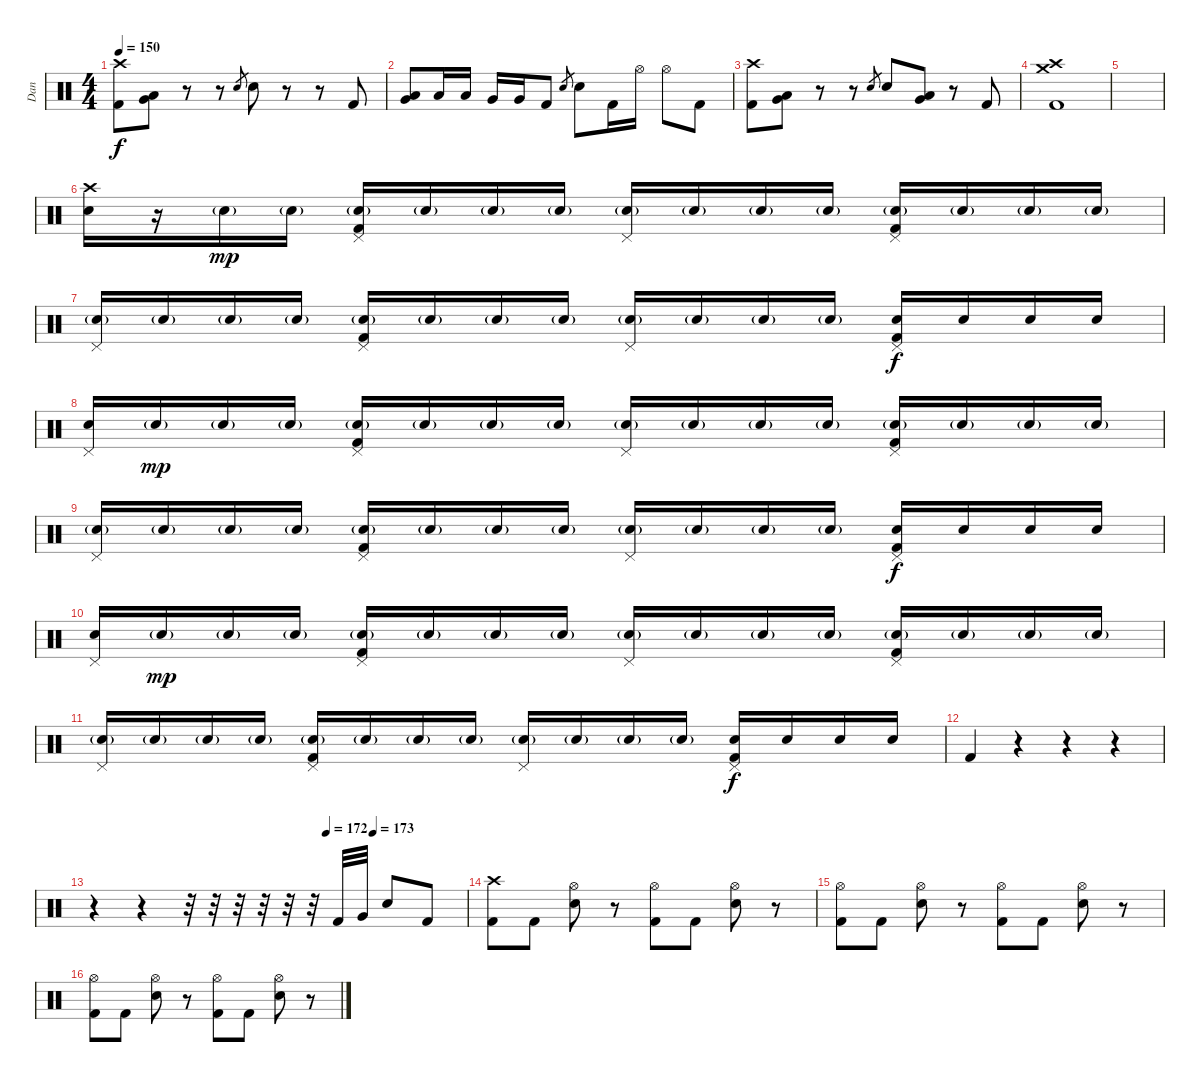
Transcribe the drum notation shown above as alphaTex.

\track ("Dan" "Dan") {instrument percussion}
\staff {score}
\articulation defaults
\ts (4 4)
\tempo 150
\clef neutral
\ks c
("Crash high (hit)" "Kick (hit) 2").8{dy f} ("Low Tom (hit)" "Very Low Tom (hit)").8 r.8 r.8 "Electric Snare (hit)".8{gr} "Electric Snare (hit)".8 r.8 r.8 "Kick (hit) 2".8 |
("Low Tom (hit)" "Very Low Tom (hit)").8 "Low Tom (hit)".16 "Low Tom (hit)".16 "Very Low Tom (hit)".16 "Very Low Tom (hit)".16 "Kick (hit) 2".8 "Electric Snare (hit)".8{gr} "Electric Snare (hit)".8 "Kick (hit) 2".16 "Hi-Hat (open)".16 "Hi-Hat (open)".8 "Kick (hit) 2".8 |
("Crash high (hit)" "Kick (hit) 2").8 ("Very Low Tom (hit)" "Low Tom (hit)").8 r.8 r.8 "Electric Snare (hit)".8{gr} "Electric Snare (hit)".8 ("Very Low Tom (hit)" "Low Tom (hit)").8 r.8 "Kick (hit) 2".8 |
("Crash high (hit)" "Crash medium (hit)" "Kick (hit) 2").1 |
|
("Crash high (hit)" "Electric Snare (hit)").16 r.16 "Electric Snare (hit)"{g}.16{dy mp} "Electric Snare (hit)"{g}.16 ("Pedal Hi-Hat (hit)" "Electric Snare (hit)"{g} "Kick (hit) 2").16 "Electric Snare (hit)"{g}.16 "Electric Snare (hit)"{g}.16 "Electric Snare (hit)"{g}.16 ("Pedal Hi-Hat (hit)" "Electric Snare (hit)"{g}).16 "Electric Snare (hit)"{g}.16 "Electric Snare (hit)"{g}.16 "Electric Snare (hit)"{g}.16 ("Pedal Hi-Hat (hit)" "Electric Snare (hit)"{g} "Kick (hit) 2").16 "Electric Snare (hit)"{g}.16 "Electric Snare (hit)"{g}.16 "Electric Snare (hit)"{g}.16 |
("Pedal Hi-Hat (hit)" "Electric Snare (hit)"{g}).16{volume 16} "Electric Snare (hit)"{g}.16 "Electric Snare (hit)"{g}.16 "Electric Snare (hit)"{g}.16 ("Pedal Hi-Hat (hit)" "Electric Snare (hit)"{g} "Kick (hit) 2").16 "Electric Snare (hit)"{g}.16 "Electric Snare (hit)"{g}.16 "Electric Snare (hit)"{g}.16 ("Pedal Hi-Hat (hit)" "Electric Snare (hit)"{g}).16 "Electric Snare (hit)"{g}.16 "Electric Snare (hit)"{g}.16 "Electric Snare (hit)"{g}.16 ("Pedal Hi-Hat (hit)" "Electric Snare (hit)" "Kick (hit) 2").16{dy f} "Electric Snare (hit)".16 "Electric Snare (hit)".16 "Electric Snare (hit)".16 |
("Pedal Hi-Hat (hit)" "Electric Snare (hit)").16{volume 12} "Electric Snare (hit)"{g}.16{dy mp} "Electric Snare (hit)"{g}.16 "Electric Snare (hit)"{g}.16 ("Pedal Hi-Hat (hit)" "Electric Snare (hit)"{g} "Kick (hit) 2").16 "Electric Snare (hit)"{g}.16 "Electric Snare (hit)"{g}.16 "Electric Snare (hit)"{g}.16 ("Pedal Hi-Hat (hit)" "Electric Snare (hit)"{g}).16 "Electric Snare (hit)"{g}.16 "Electric Snare (hit)"{g}.16 "Electric Snare (hit)"{g}.16 ("Pedal Hi-Hat (hit)" "Electric Snare (hit)"{g} "Kick (hit) 2").16 "Electric Snare (hit)"{g}.16 "Electric Snare (hit)"{g}.16 "Electric Snare (hit)"{g}.16 |
("Pedal Hi-Hat (hit)" "Electric Snare (hit)"{g}).16{volume 16} "Electric Snare (hit)"{g}.16 "Electric Snare (hit)"{g}.16 "Electric Snare (hit)"{g}.16 ("Pedal Hi-Hat (hit)" "Electric Snare (hit)"{g} "Kick (hit) 2").16 "Electric Snare (hit)"{g}.16 "Electric Snare (hit)"{g}.16 "Electric Snare (hit)"{g}.16 ("Pedal Hi-Hat (hit)" "Electric Snare (hit)"{g}).16 "Electric Snare (hit)"{g}.16 "Electric Snare (hit)"{g}.16 "Electric Snare (hit)"{g}.16 ("Pedal Hi-Hat (hit)" "Electric Snare (hit)" "Kick (hit) 2").16{dy f} "Electric Snare (hit)".16 "Electric Snare (hit)".16 "Electric Snare (hit)".16 |
("Pedal Hi-Hat (hit)" "Electric Snare (hit)").16{volume 12} "Electric Snare (hit)"{g}.16{dy mp} "Electric Snare (hit)"{g}.16 "Electric Snare (hit)"{g}.16 ("Pedal Hi-Hat (hit)" "Electric Snare (hit)"{g} "Kick (hit) 2").16 "Electric Snare (hit)"{g}.16 "Electric Snare (hit)"{g}.16 "Electric Snare (hit)"{g}.16 ("Pedal Hi-Hat (hit)" "Electric Snare (hit)"{g}).16 "Electric Snare (hit)"{g}.16 "Electric Snare (hit)"{g}.16 "Electric Snare (hit)"{g}.16 ("Pedal Hi-Hat (hit)" "Electric Snare (hit)"{g} "Kick (hit) 2").16 "Electric Snare (hit)"{g}.16 "Electric Snare (hit)"{g}.16 "Electric Snare (hit)"{g}.16 |
("Pedal Hi-Hat (hit)" "Electric Snare (hit)"{g}).16{volume 16} "Electric Snare (hit)"{g}.16 "Electric Snare (hit)"{g}.16 "Electric Snare (hit)"{g}.16 ("Pedal Hi-Hat (hit)" "Electric Snare (hit)"{g} "Kick (hit) 2").16 "Electric Snare (hit)"{g}.16 "Electric Snare (hit)"{g}.16 "Electric Snare (hit)"{g}.16 ("Pedal Hi-Hat (hit)" "Electric Snare (hit)"{g}).16 "Electric Snare (hit)"{g}.16 "Electric Snare (hit)"{g}.16 "Electric Snare (hit)"{g}.16 ("Pedal Hi-Hat (hit)" "Electric Snare (hit)" "Kick (hit) 2").16{dy f} "Electric Snare (hit)".16 "Electric Snare (hit)".16 "Electric Snare (hit)".16 |
"Kick (hit) 2".4 r.4 r.4 r.4 |
\tempo (172 0.625)
\tempo (173 0.75)
r.4 r.4 r.32 r.32 r.32 r.32 r.32 r.32 "Kick (hit) 2".32{volume 12} "Very Low Tom (hit)".32 "Electric Snare (hit)".8 "Kick (hit) 2".8 |
("Crash high (hit)" "Kick (hit) 2").8 "Kick (hit) 2".8 ("Hi-Hat (open)" "Electric Snare (hit)").8 r.8 ("Hi-Hat (open)" "Kick (hit) 2").8 "Kick (hit) 2".8 ("Hi-Hat (open)" "Electric Snare (hit)").8 r.8 |
("Hi-Hat (open)" "Kick (hit) 2").8 "Kick (hit) 2".8 ("Hi-Hat (open)" "Electric Snare (hit)").8 r.8 ("Hi-Hat (open)" "Kick (hit) 2").8 "Kick (hit) 2".8 ("Hi-Hat (open)" "Electric Snare (hit)").8 r.8 |
("Hi-Hat (open)" "Kick (hit) 2").8 "Kick (hit) 2".8 ("Hi-Hat (open)" "Electric Snare (hit)").8 r.8 ("Hi-Hat (open)" "Kick (hit) 2").8 "Kick (hit) 2".8 ("Hi-Hat (open)" "Electric Snare (hit)").8 r.8
